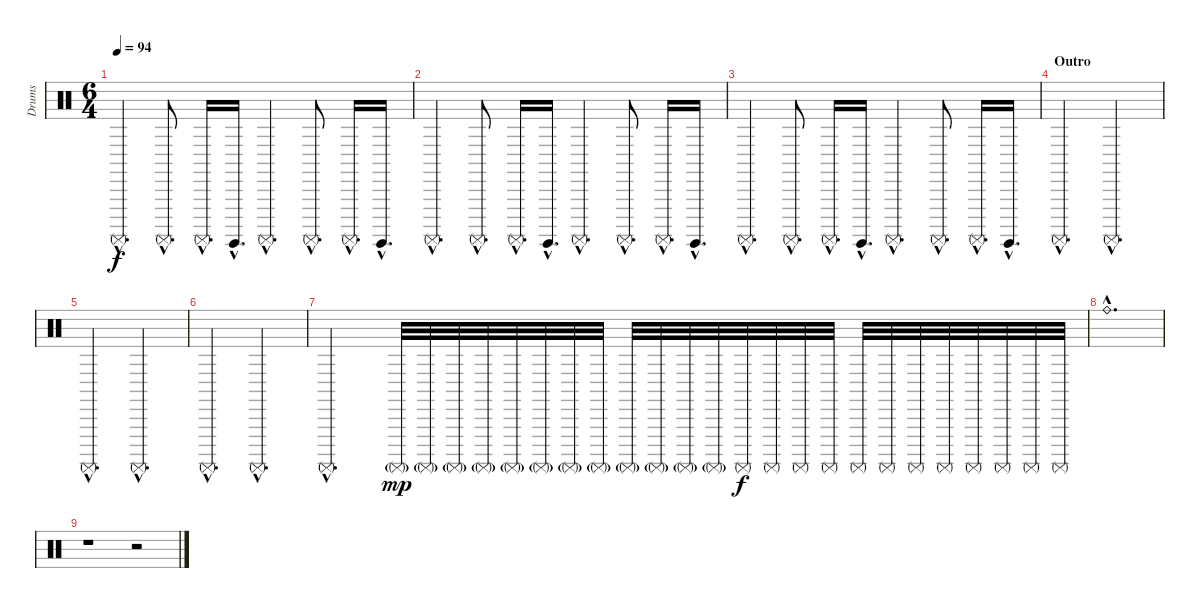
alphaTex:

\track ("Drums" "Drums") {instrument percussion}
\staff {score}
\articulation defaults
\ts (6 4)
\tempo 94
\clef neutral
\ks c "Surdo (mute)"{hac}.4{d dy f} "Surdo (mute)"{hac}.8{d} "Surdo (mute)"{hac}.16{d} "Surdo (hit)"{hac}.16{d} "Surdo (mute)"{hac}.4{d} "Surdo (mute)"{hac}.8{d} "Surdo (mute)"{hac}.16{d} "Surdo (hit)"{hac}.16{d}
|
"Surdo (mute)"{hac}.4{d} "Surdo (mute)"{hac}.8{d} "Surdo (mute)"{hac}.16{d} "Surdo (hit)"{hac}.16{d} "Surdo (mute)"{hac}.4{d} "Surdo (mute)"{hac}.8{d} "Surdo (mute)"{hac}.16{d} "Surdo (hit)"{hac}.16{d} |
"Surdo (mute)"{hac}.4{d} "Surdo (mute)"{hac}.8{d} "Surdo (mute)"{hac}.16{d} "Surdo (hit)"{hac}.16{d} "Surdo (mute)"{hac}.4{d} "Surdo (mute)"{hac}.8{d} "Surdo (mute)"{hac}.16{d} "Surdo (hit)"{hac}.16{d} |
\section ("" "Outro")
"Surdo (mute)"{hac}.2{d} "Surdo (mute)"{hac}.2{d} |
"Surdo (mute)"{hac}.2{d} "Surdo (mute)"{hac}.2{d} |
"Surdo (mute)"{hac}.2{d} "Surdo (mute)"{hac}.2{d} |
"Surdo (mute)"{hac}.2{d} "Surdo (mute)"{g}.32{dy mp volume 12} "Surdo (mute)"{g}.32 "Surdo (mute)"{g}.32 "Surdo (mute)"{g}.32 "Surdo (mute)"{g}.32 "Surdo (mute)"{g}.32 "Surdo (mute)"{g}.32 "Surdo (mute)"{g}.32 "Surdo (mute)"{g}.32 "Surdo (mute)"{g}.32 "Surdo (mute)"{g}.32 "Surdo (mute)"{g}.32 "Surdo (mute)".32{dy f} "Surdo (mute)".32 "Surdo (mute)".32 "Surdo (mute)".32 "Surdo (mute)".32 "Surdo (mute)".32 "Surdo (mute)".32 "Surdo (mute)".32 "Surdo (mute)".32 "Surdo (mute)".32 "Surdo (mute)".32 "Surdo (mute)".32 |
"Ride (bell)"{hac}.1{d} |
r.1 r.2
